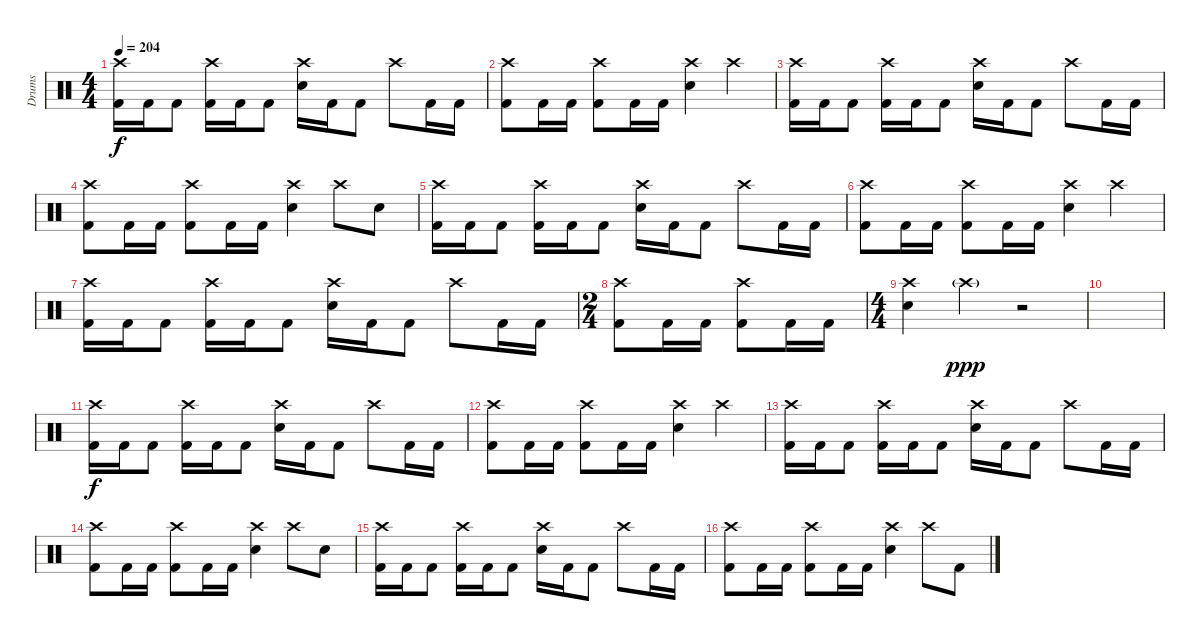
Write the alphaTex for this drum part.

\track ("Drums" "Drums") {instrument percussion}
\staff {score}
\articulation defaults
\ts (4 4)
\tempo 204
\clef neutral
\ks c
("Crash high (hit)" "Kick (hit) 2").16{dy f} "Kick (hit) 2".16 "Kick (hit) 2".8 ("Crash high (hit)" "Kick (hit) 2").16 "Kick (hit) 2".16 "Kick (hit) 2".8 ("Crash high (hit)" "Electric Snare (hit)").16 "Kick (hit) 2".16 "Kick (hit) 2".8 "Crash high (hit)".8 "Kick (hit) 2".16 "Kick (hit) 2".16 |
("Crash high (hit)" "Kick (hit) 2").8 "Kick (hit) 2".16 "Kick (hit) 2".16 ("Crash high (hit)" "Kick (hit) 2").8 "Kick (hit) 2".16 "Kick (hit) 2".16 ("Crash high (hit)" "Electric Snare (hit)").4 "Crash high (hit)".4 |
("Crash high (hit)" "Kick (hit) 2").16 "Kick (hit) 2".16 "Kick (hit) 2".8 ("Crash high (hit)" "Kick (hit) 2").16 "Kick (hit) 2".16 "Kick (hit) 2".8 ("Crash high (hit)" "Electric Snare (hit)").16 "Kick (hit) 2".16 "Kick (hit) 2".8 "Crash high (hit)".8 "Kick (hit) 2".16 "Kick (hit) 2".16 |
("Crash high (hit)" "Kick (hit) 2").8 "Kick (hit) 2".16 "Kick (hit) 2".16 ("Crash high (hit)" "Kick (hit) 2").8 "Kick (hit) 2".16 "Kick (hit) 2".16 ("Crash high (hit)" "Electric Snare (hit)").4 "Crash high (hit)".8 "Electric Snare (hit)".8 |
("Crash high (hit)" "Kick (hit) 2").16 "Kick (hit) 2".16 "Kick (hit) 2".8 ("Crash high (hit)" "Kick (hit) 2").16 "Kick (hit) 2".16 "Kick (hit) 2".8 ("Crash high (hit)" "Electric Snare (hit)").16 "Kick (hit) 2".16 "Kick (hit) 2".8 "Crash high (hit)".8 "Kick (hit) 2".16 "Kick (hit) 2".16 |
("Crash high (hit)" "Kick (hit) 2").8 "Kick (hit) 2".16 "Kick (hit) 2".16 ("Crash high (hit)" "Kick (hit) 2").8 "Kick (hit) 2".16 "Kick (hit) 2".16 ("Crash high (hit)" "Electric Snare (hit)").4 "Crash high (hit)".4 |
("Crash high (hit)" "Kick (hit) 2").16 "Kick (hit) 2".16 "Kick (hit) 2".8 ("Crash high (hit)" "Kick (hit) 2").16 "Kick (hit) 2".16 "Kick (hit) 2".8 ("Crash high (hit)" "Electric Snare (hit)").16 "Kick (hit) 2".16 "Kick (hit) 2".8 "Crash high (hit)".8 "Kick (hit) 2".16 "Kick (hit) 2".16 |
\ts (2 4)
("Crash high (hit)" "Kick (hit) 2").8 "Kick (hit) 2".16 "Kick (hit) 2".16 ("Crash high (hit)" "Kick (hit) 2").8 "Kick (hit) 2".16 "Kick (hit) 2".16 |
\ts (4 4)
("Crash high (hit)" "Electric Snare (hit)").4 "Crash high (hit)"{g}.4{dy ppp} r.2 |
|
("Crash high (hit)" "Kick (hit) 2").16{dy f} "Kick (hit) 2".16 "Kick (hit) 2".8 ("Crash high (hit)" "Kick (hit) 2").16 "Kick (hit) 2".16 "Kick (hit) 2".8 ("Crash high (hit)" "Electric Snare (hit)").16 "Kick (hit) 2".16 "Kick (hit) 2".8 "Crash high (hit)".8 "Kick (hit) 2".16 "Kick (hit) 2".16 |
("Crash high (hit)" "Kick (hit) 2").8 "Kick (hit) 2".16 "Kick (hit) 2".16 ("Crash high (hit)" "Kick (hit) 2").8 "Kick (hit) 2".16 "Kick (hit) 2".16 ("Crash high (hit)" "Electric Snare (hit)").4 "Crash high (hit)".4 |
("Crash high (hit)" "Kick (hit) 2").16 "Kick (hit) 2".16 "Kick (hit) 2".8 ("Crash high (hit)" "Kick (hit) 2").16 "Kick (hit) 2".16 "Kick (hit) 2".8 ("Crash high (hit)" "Electric Snare (hit)").16 "Kick (hit) 2".16 "Kick (hit) 2".8 "Crash high (hit)".8 "Kick (hit) 2".16 "Kick (hit) 2".16 |
("Crash high (hit)" "Kick (hit) 2").8 "Kick (hit) 2".16 "Kick (hit) 2".16 ("Crash high (hit)" "Kick (hit) 2").8 "Kick (hit) 2".16 "Kick (hit) 2".16 ("Crash high (hit)" "Electric Snare (hit)").4 "Crash high (hit)".8 "Electric Snare (hit)".8 |
("Crash high (hit)" "Kick (hit) 2").16 "Kick (hit) 2".16 "Kick (hit) 2".8 ("Crash high (hit)" "Kick (hit) 2").16 "Kick (hit) 2".16 "Kick (hit) 2".8 ("Crash high (hit)" "Electric Snare (hit)").16 "Kick (hit) 2".16 "Kick (hit) 2".8 "Crash high (hit)".8 "Kick (hit) 2".16 "Kick (hit) 2".16 |
("Crash high (hit)" "Kick (hit) 2").8 "Kick (hit) 2".16 "Kick (hit) 2".16 ("Crash high (hit)" "Kick (hit) 2").8 "Kick (hit) 2".16 "Kick (hit) 2".16 ("Crash high (hit)" "Electric Snare (hit)").4 "Crash high (hit)".8 "Kick (hit) 2".8
